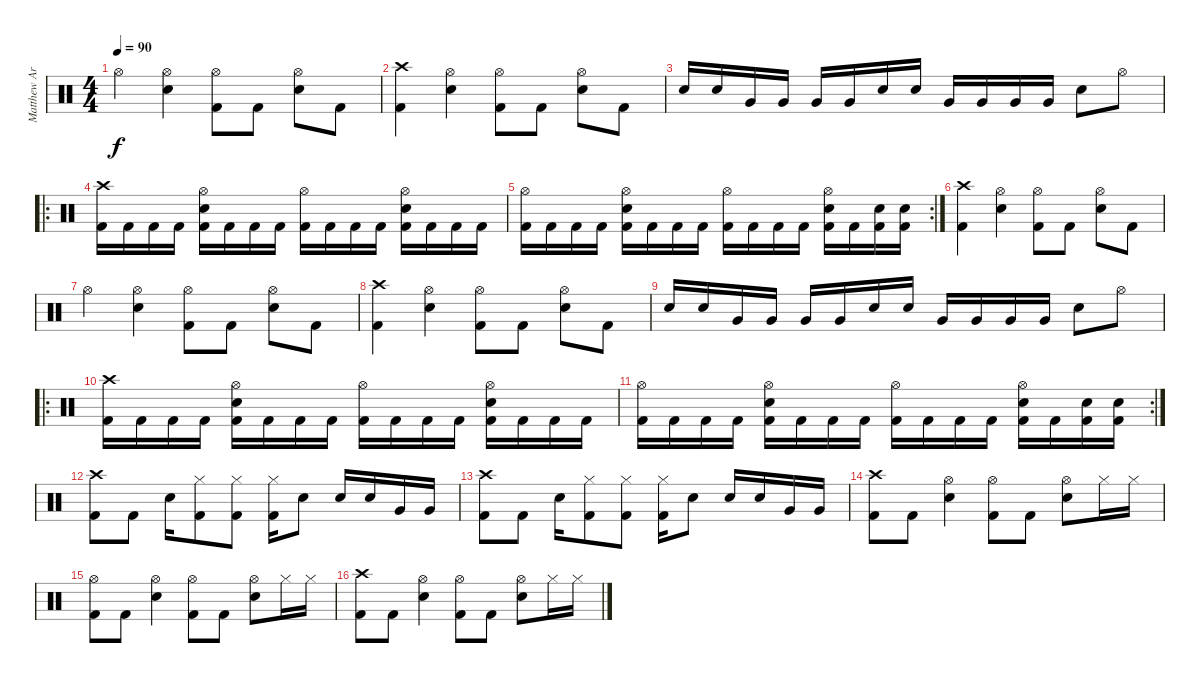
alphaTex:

\track ("Matthew Archer" "Matthew Ar") {instrument percussion}
\staff {score}
\articulation defaults
\ts (4 4)
\tempo 90
\clef neutral
\ks c "Hi-Hat (open)".4{dy f}
("Hi-Hat (open)" "Electric Snare (hit)").4 ("Hi-Hat (open)" "Kick (hit) 2").8 "Kick (hit) 2".8 ("Hi-Hat (open)" "Electric Snare (hit)").8 "Kick (hit) 2".8 |
("Crash high (hit)" "Kick (hit) 2").4 ("Hi-Hat (open)" "Electric Snare (hit)").4 ("Hi-Hat (open)" "Kick (hit) 2").8 "Kick (hit) 2".8 ("Hi-Hat (open)" "Electric Snare (hit)").8 "Kick (hit) 2".8 |
"Electric Snare (hit)".16 "Electric Snare (hit)".16 "Very Low Tom (hit)".16 "Very Low Tom (hit)".16 "Very Low Tom (hit)".16 "Very Low Tom (hit)".16 "Electric Snare (hit)".16 "Electric Snare (hit)".16 "Very Low Tom (hit)".16 "Very Low Tom (hit)".16 "Very Low Tom (hit)".16 "Very Low Tom (hit)".16 "Electric Snare (hit)".8 "Hi-Hat (open)".8 |
\ro
("Crash high (hit)" "Kick (hit) 2").16 "Kick (hit) 2".16 "Kick (hit) 2".16 "Kick (hit) 2".16 ("Hi-Hat (open)" "Electric Snare (hit)" "Kick (hit) 2").16 "Kick (hit) 2".16 "Kick (hit) 2".16 "Kick (hit) 2".16 ("Hi-Hat (open)" "Kick (hit) 2").16 "Kick (hit) 2".16 "Kick (hit) 2".16 "Kick (hit) 2".16 ("Hi-Hat (open)" "Electric Snare (hit)" "Kick (hit) 2").16 "Kick (hit) 2".16 "Kick (hit) 2".16 "Kick (hit) 2".16 |
\rc 2
("Hi-Hat (open)" "Kick (hit) 2").16 "Kick (hit) 2".16 "Kick (hit) 2".16 "Kick (hit) 2".16 ("Hi-Hat (open)" "Electric Snare (hit)" "Kick (hit) 2").16 "Kick (hit) 2".16 "Kick (hit) 2".16 "Kick (hit) 2".16 ("Hi-Hat (open)" "Kick (hit) 2").16 "Kick (hit) 2".16 "Kick (hit) 2".16 "Kick (hit) 2".16 ("Hi-Hat (open)" "Electric Snare (hit)" "Kick (hit) 2").16 "Kick (hit) 2".16 ("Electric Snare (hit)" "Kick (hit) 2").16 ("Electric Snare (hit)" "Kick (hit) 2").16 |
("Crash high (hit)" "Kick (hit) 2").4 ("Hi-Hat (open)" "Electric Snare (hit)").4 ("Hi-Hat (open)" "Kick (hit) 2").8 "Kick (hit) 2".8 ("Hi-Hat (open)" "Electric Snare (hit)").8 "Kick (hit) 2".8 |
"Hi-Hat (open)".4 ("Hi-Hat (open)" "Electric Snare (hit)").4 ("Hi-Hat (open)" "Kick (hit) 2").8 "Kick (hit) 2".8 ("Hi-Hat (open)" "Electric Snare (hit)").8 "Kick (hit) 2".8 |
("Crash high (hit)" "Kick (hit) 2").4 ("Hi-Hat (open)" "Electric Snare (hit)").4 ("Hi-Hat (open)" "Kick (hit) 2").8 "Kick (hit) 2".8 ("Hi-Hat (open)" "Electric Snare (hit)").8 "Kick (hit) 2".8 |
"Electric Snare (hit)".16 "Electric Snare (hit)".16 "Very Low Tom (hit)".16 "Very Low Tom (hit)".16 "Very Low Tom (hit)".16 "Very Low Tom (hit)".16 "Electric Snare (hit)".16 "Electric Snare (hit)".16 "Very Low Tom (hit)".16 "Very Low Tom (hit)".16 "Very Low Tom (hit)".16 "Very Low Tom (hit)".16 "Electric Snare (hit)".8 "Hi-Hat (open)".8 |
\ro
("Crash high (hit)" "Kick (hit) 2").16 "Kick (hit) 2".16 "Kick (hit) 2".16 "Kick (hit) 2".16 ("Hi-Hat (open)" "Electric Snare (hit)" "Kick (hit) 2").16 "Kick (hit) 2".16 "Kick (hit) 2".16 "Kick (hit) 2".16 ("Hi-Hat (open)" "Kick (hit) 2").16 "Kick (hit) 2".16 "Kick (hit) 2".16 "Kick (hit) 2".16 ("Hi-Hat (open)" "Electric Snare (hit)" "Kick (hit) 2").16 "Kick (hit) 2".16 "Kick (hit) 2".16 "Kick (hit) 2".16 |
\rc 2
("Hi-Hat (open)" "Kick (hit) 2").16 "Kick (hit) 2".16 "Kick (hit) 2".16 "Kick (hit) 2".16 ("Hi-Hat (open)" "Electric Snare (hit)" "Kick (hit) 2").16 "Kick (hit) 2".16 "Kick (hit) 2".16 "Kick (hit) 2".16 ("Hi-Hat (open)" "Kick (hit) 2").16 "Kick (hit) 2".16 "Kick (hit) 2".16 "Kick (hit) 2".16 ("Hi-Hat (open)" "Electric Snare (hit)" "Kick (hit) 2").16 "Kick (hit) 2".16 ("Electric Snare (hit)" "Kick (hit) 2").16 ("Electric Snare (hit)" "Kick (hit) 2").16 |
("Crash high (hit)" "Kick (hit) 2").8 "Kick (hit) 2".8 "Electric Snare (hit)".16 ("Hi-Hat (closed)" "Kick (hit) 2").8 ("Hi-Hat (closed)" "Kick (hit) 2").8 ("Hi-Hat (closed)" "Kick (hit) 2").16 "Electric Snare (hit)".8 "Electric Snare (hit)".16 "Electric Snare (hit)".16 "Very Low Tom (hit)".16 "Very Low Tom (hit)".16 |
("Crash high (hit)" "Kick (hit) 2").8 "Kick (hit) 2".8 "Electric Snare (hit)".16 ("Hi-Hat (closed)" "Kick (hit) 2").8 ("Hi-Hat (closed)" "Kick (hit) 2").8 ("Hi-Hat (closed)" "Kick (hit) 2").16 "Electric Snare (hit)".8 "Electric Snare (hit)".16 "Electric Snare (hit)".16 "Very Low Tom (hit)".16 "Very Low Tom (hit)".16 |
("Crash high (hit)" "Kick (hit) 2").8 "Kick (hit) 2".8 ("Hi-Hat (open)" "Electric Snare (hit)").4 ("Hi-Hat (open)" "Kick (hit) 2").8 "Kick (hit) 2".8 ("Hi-Hat (open)" "Electric Snare (hit)").8 "Hi-Hat (closed)".16 "Hi-Hat (closed)".16 |
("Hi-Hat (open)" "Kick (hit) 2").8 "Kick (hit) 2".8 ("Hi-Hat (open)" "Electric Snare (hit)").4 ("Hi-Hat (open)" "Kick (hit) 2").8 "Kick (hit) 2".8 ("Hi-Hat (open)" "Electric Snare (hit)").8 "Hi-Hat (closed)".16 "Hi-Hat (closed)".16 |
("Crash high (hit)" "Kick (hit) 2").8 "Kick (hit) 2".8 ("Hi-Hat (open)" "Electric Snare (hit)").4 ("Hi-Hat (open)" "Kick (hit) 2").8 "Kick (hit) 2".8 ("Hi-Hat (open)" "Electric Snare (hit)").8 "Hi-Hat (closed)".16 "Hi-Hat (closed)".16
